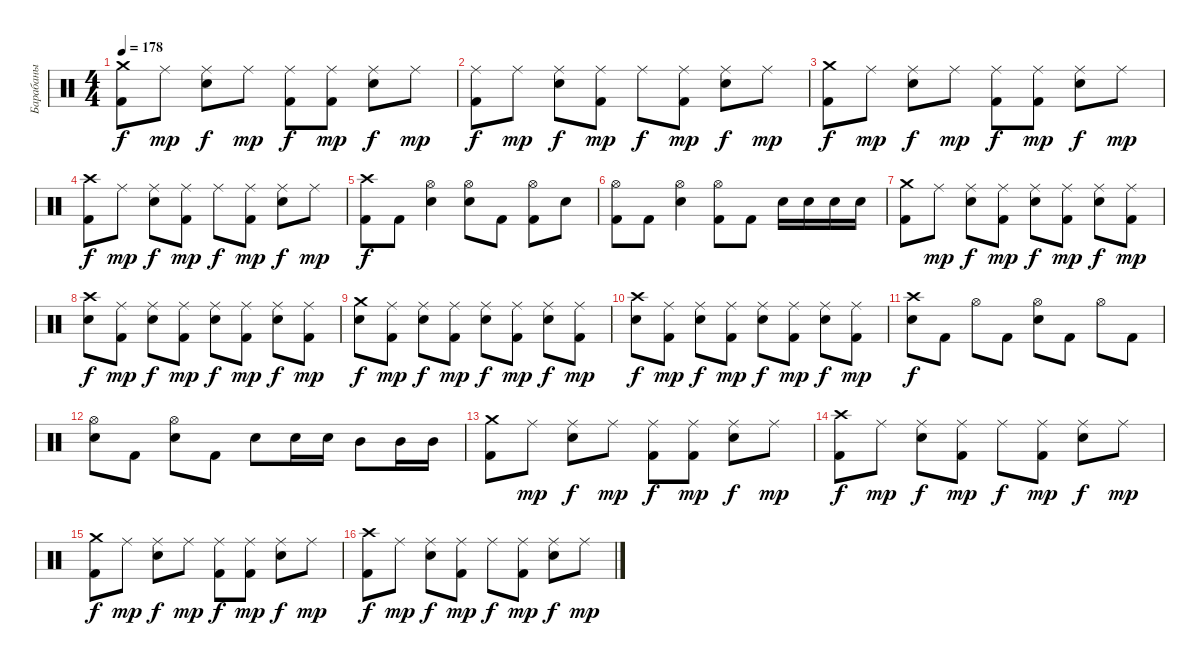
\track ("Барабаны" "Барабаны") {instrument percussion}
\staff {score}
\articulation defaults
\ts (4 4)
\tempo 178
\clef neutral
\ks c
("Crash medium (hit)" "Kick (hit) 2").8{dy f} "Ride (middle)".8{dy mp} ("Ride (middle)" "Electric Snare (hit)").8{dy f} "Ride (middle)".8{dy mp} ("Ride (middle)" "Kick (hit) 2").8{dy f} ("Ride (middle)" "Kick (hit) 2").8{dy mp} ("Ride (middle)" "Electric Snare (hit)").8{dy f} "Ride (middle)".8{dy mp} |
("Ride (middle)" "Kick (hit) 2").8{dy f} "Ride (middle)".8{dy mp} ("Ride (middle)" "Electric Snare (hit)").8{dy f} ("Ride (middle)" "Kick (hit) 2").8{dy mp} "Ride (middle)".8{dy f} ("Ride (middle)" "Kick (hit) 2").8{dy mp} ("Ride (middle)" "Electric Snare (hit)").8{dy f} "Ride (middle)".8{dy mp} |
("Crash medium (hit)" "Kick (hit) 2").8{dy f} "Ride (middle)".8{dy mp} ("Ride (middle)" "Electric Snare (hit)").8{dy f} "Ride (middle)".8{dy mp} ("Ride (middle)" "Kick (hit) 2").8{dy f} ("Ride (middle)" "Kick (hit) 2").8{dy mp} ("Ride (middle)" "Electric Snare (hit)").8{dy f} "Ride (middle)".8{dy mp} |
("Crash high (hit)" "Kick (hit) 2").8{dy f} "Ride (middle)".8{dy mp} ("Ride (middle)" "Electric Snare (hit)").8{dy f} ("Ride (middle)" "Kick (hit) 2").8{dy mp} "Ride (middle)".8{dy f} ("Ride (middle)" "Kick (hit) 2").8{dy mp} ("Ride (middle)" "Electric Snare (hit)").8{dy f} "Ride (middle)".8{dy mp} |
("Crash high (hit)" "Kick (hit) 2").8{dy f} "Kick (hit) 2".8 ("Hi-Hat (open)" "Electric Snare (hit)").4 ("Hi-Hat (open)" "Electric Snare (hit)").8 "Kick (hit) 2".8 ("Hi-Hat (open)" "Kick (hit) 2").8 "Electric Snare (hit)".8 |
("Hi-Hat (open)" "Kick (hit) 2").8 "Kick (hit) 2".8 ("Hi-Hat (open)" "Electric Snare (hit)").4 ("Hi-Hat (open)" "Kick (hit) 2").8 "Kick (hit) 2".8 "Electric Snare (hit)".16 "Electric Snare (hit)".16 "Electric Snare (hit)".16 "Electric Snare (hit)".16 |
("Crash medium (hit)" "Kick (hit) 2").8 "Ride (middle)".8{dy mp} ("Ride (middle)" "Electric Snare (hit)").8{dy f} ("Ride (middle)" "Kick (hit) 2").8{dy mp} ("Ride (middle)" "Electric Snare (hit)").8{dy f} ("Ride (middle)" "Kick (hit) 2").8{dy mp} ("Ride (middle)" "Electric Snare (hit)").8{dy f} ("Ride (middle)" "Kick (hit) 2").8{dy mp} |
("Crash high (hit)" "Electric Snare (hit)").8{dy f} ("Ride (middle)" "Kick (hit) 2").8{dy mp} ("Ride (middle)" "Electric Snare (hit)").8{dy f} ("Ride (middle)" "Kick (hit) 2").8{dy mp} ("Ride (middle)" "Electric Snare (hit)").8{dy f} ("Ride (middle)" "Kick (hit) 2").8{dy mp} ("Ride (middle)" "Electric Snare (hit)").8{dy f} ("Ride (middle)" "Kick (hit) 2").8{dy mp} |
("Crash medium (hit)" "Electric Snare (hit)").8{dy f} ("Ride (middle)" "Kick (hit) 2").8{dy mp} ("Ride (middle)" "Electric Snare (hit)").8{dy f} ("Ride (middle)" "Kick (hit) 2").8{dy mp} ("Ride (middle)" "Electric Snare (hit)").8{dy f} ("Ride (middle)" "Kick (hit) 2").8{dy mp} ("Ride (middle)" "Electric Snare (hit)").8{dy f} ("Ride (middle)" "Kick (hit) 2").8{dy mp} |
("Crash high (hit)" "Electric Snare (hit)").8{dy f} ("Ride (middle)" "Kick (hit) 2").8{dy mp} ("Ride (middle)" "Electric Snare (hit)").8{dy f} ("Ride (middle)" "Kick (hit) 2").8{dy mp} ("Ride (middle)" "Electric Snare (hit)").8{dy f} ("Ride (middle)" "Kick (hit) 2").8{dy mp} ("Ride (middle)" "Electric Snare (hit)").8{dy f} ("Ride (middle)" "Kick (hit) 2").8{dy mp} |
("Crash high (hit)" "Electric Snare (hit)").8{dy f} "Kick (hit) 2".8 "Hi-Hat (open)".8 "Kick (hit) 2".8 ("Hi-Hat (open)" "Electric Snare (hit)").8 "Kick (hit) 2".8 "Hi-Hat (open)".8 "Kick (hit) 2".8 |
("Hi-Hat (open)" "Electric Snare (hit)").8 "Kick (hit) 2".8 ("Hi-Hat (open)" "Electric Snare (hit)").8 "Kick (hit) 2".8 "Electric Snare (hit)".8 "Electric Snare (hit)".16 "Electric Snare (hit)".16 "Mid Tom (hit)".8 "Mid Tom (hit)".16 "Mid Tom (hit)".16 |
("Crash medium (hit)" "Kick (hit) 2").8 "Ride (middle)".8{dy mp} ("Ride (middle)" "Electric Snare (hit)").8{dy f} "Ride (middle)".8{dy mp} ("Ride (middle)" "Kick (hit) 2").8{dy f} ("Ride (middle)" "Kick (hit) 2").8{dy mp} ("Ride (middle)" "Electric Snare (hit)").8{dy f} "Ride (middle)".8{dy mp} |
("Crash high (hit)" "Kick (hit) 2").8{dy f} "Ride (middle)".8{dy mp} ("Ride (middle)" "Electric Snare (hit)").8{dy f} ("Ride (middle)" "Kick (hit) 2").8{dy mp} "Ride (middle)".8{dy f} ("Ride (middle)" "Kick (hit) 2").8{dy mp} ("Ride (middle)" "Electric Snare (hit)").8{dy f} "Ride (middle)".8{dy mp} |
("Crash medium (hit)" "Kick (hit) 2").8{dy f} "Ride (middle)".8{dy mp} ("Ride (middle)" "Electric Snare (hit)").8{dy f} "Ride (middle)".8{dy mp} ("Ride (middle)" "Kick (hit) 2").8{dy f} ("Ride (middle)" "Kick (hit) 2").8{dy mp} ("Ride (middle)" "Electric Snare (hit)").8{dy f} "Ride (middle)".8{dy mp} |
("Crash high (hit)" "Kick (hit) 2").8{dy f} "Ride (middle)".8{dy mp} ("Ride (middle)" "Electric Snare (hit)").8{dy f} ("Ride (middle)" "Kick (hit) 2").8{dy mp} "Ride (middle)".8{dy f} ("Ride (middle)" "Kick (hit) 2").8{dy mp} ("Ride (middle)" "Electric Snare (hit)").8{dy f} "Ride (middle)".8{dy mp}
